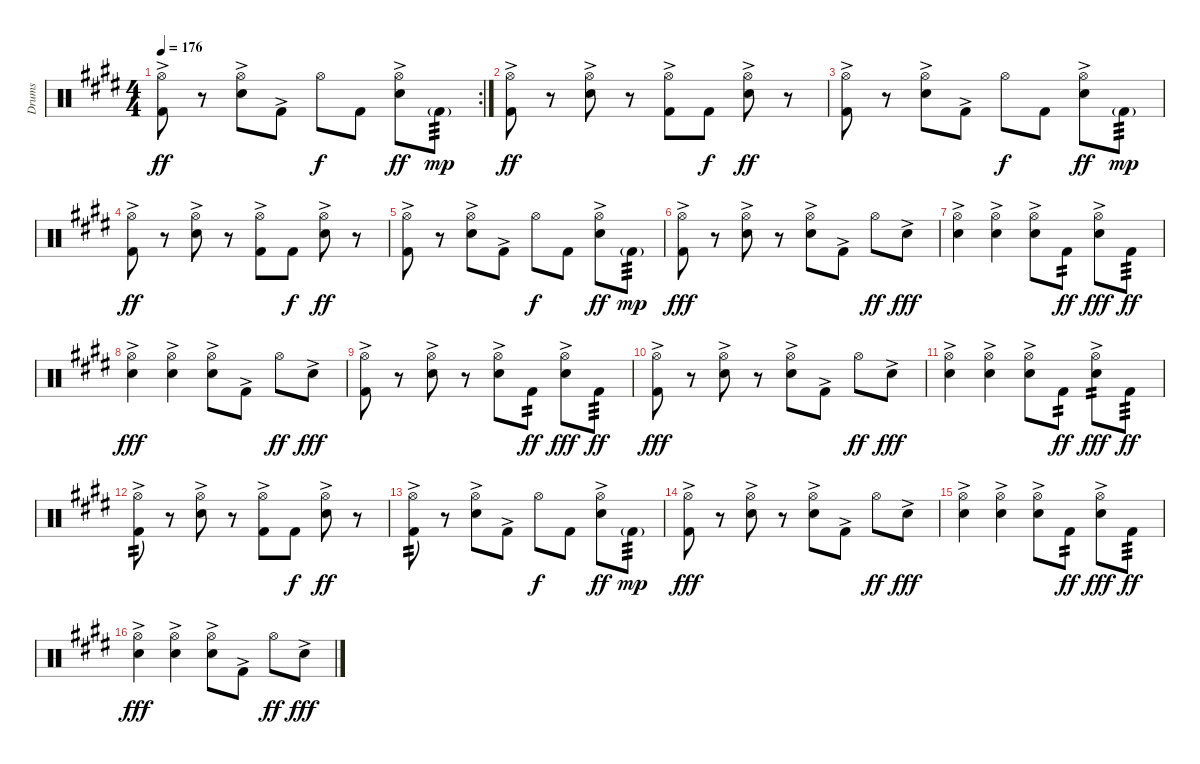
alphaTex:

\track ("Drums" "Drums") {instrument percussion}
\staff {score}
\articulation defaults
\rc 2
\ts (4 4)
\tempo 176
\clef neutral
\ks e
("Hi-Hat (open)" "Kick (hit) 2"{ac}).8{dy ff} r.8 ("Hi-Hat (open)" "Snare (hit) 2"{ac}).8 "Kick (hit) 2"{ac}.8 "Hi-Hat (open)".8{dy f} "Kick (hit) 2".8 ("Hi-Hat (open)" "Snare (hit) 2"{ac}).8{dy ff} "Kick (hit) 2"{g}.8{tp 3 dy mp} |
("Hi-Hat (open)" "Kick (hit) 2"{ac}).8{dy ff} r.8 ("Hi-Hat (open)" "Snare (hit) 2"{ac}).8 r.8 ("Hi-Hat (open)" "Kick (hit) 2"{ac}).8 "Kick (hit) 2".8{dy f} ("Hi-Hat (open)" "Snare (hit) 2"{ac}).8{dy ff} r.8 |
("Hi-Hat (open)" "Kick (hit) 2"{ac}).8 r.8 ("Hi-Hat (open)" "Snare (hit) 2"{ac}).8 "Kick (hit) 2"{ac}.8 "Hi-Hat (open)".8{dy f} "Kick (hit) 2".8 ("Hi-Hat (open)" "Snare (hit) 2"{ac}).8{dy ff} "Kick (hit) 2"{g}.8{tp 3 dy mp} |
("Hi-Hat (open)" "Kick (hit) 2"{ac}).8{dy ff} r.8 ("Hi-Hat (open)" "Snare (hit) 2"{ac}).8 r.8 ("Hi-Hat (open)" "Kick (hit) 2"{ac}).8 "Kick (hit) 2".8{dy f} ("Hi-Hat (open)" "Snare (hit) 2"{ac}).8{dy ff} r.8 |
("Hi-Hat (open)" "Kick (hit) 2"{ac}).8 r.8 ("Hi-Hat (open)" "Snare (hit) 2"{ac}).8 "Kick (hit) 2"{ac}.8 "Hi-Hat (open)".8{dy f} "Kick (hit) 2".8 ("Hi-Hat (open)" "Snare (hit) 2"{ac}).8{dy ff} "Kick (hit) 2"{g}.8{tp 3 dy mp} |
("Hi-Hat (open)" "Kick (hit) 2"{ac}).8{dy fff} r.8 ("Hi-Hat (open)" "Snare (hit) 2"{ac}).8 r.8 ("Hi-Hat (open)" "Snare (hit) 2"{ac}).8 "Kick (hit) 2"{ac}.8 "Hi-Hat (open)".8{dy ff} "Snare (hit) 2"{ac}.8{dy fff} |
("Hi-Hat (open)" "Snare (hit) 2"{ac}).4 ("Hi-Hat (open)" "Snare (hit) 2"{ac}).4 ("Hi-Hat (open)" "Snare (hit) 2"{ac}).8 "Kick (hit) 2".8{tp 2 dy ff} ("Hi-Hat (open)" "Snare (hit) 2"{ac}).8{dy fff} "Kick (hit) 2".8{tp 3 dy ff} |
("Hi-Hat (open)" "Snare (hit) 2"{ac}).4{dy fff} ("Hi-Hat (open)" "Snare (hit) 2"{ac}).4 ("Hi-Hat (open)" "Snare (hit) 2"{ac}).8 "Kick (hit) 2"{ac}.8 "Hi-Hat (open)".8{dy ff} "Snare (hit) 2"{ac}.8{dy fff} |
("Hi-Hat (open)" "Kick (hit) 2"{ac}).8 r.8 ("Hi-Hat (open)" "Snare (hit) 2"{ac}).8 r.8 ("Hi-Hat (open)" "Snare (hit) 2"{ac}).8 "Kick (hit) 2".8{tp 2 dy ff} ("Hi-Hat (open)" "Snare (hit) 2"{ac}).8{dy fff} "Kick (hit) 2".8{tp 3 dy ff} |
("Hi-Hat (open)" "Kick (hit) 2"{ac}).8{dy fff} r.8 ("Hi-Hat (open)" "Snare (hit) 2"{ac}).8 r.8 ("Hi-Hat (open)" "Snare (hit) 2"{ac}).8 "Kick (hit) 2"{ac}.8 "Hi-Hat (open)".8{dy ff} "Snare (hit) 2"{ac}.8{dy fff} |
("Hi-Hat (open)" "Snare (hit) 2"{ac}).4 ("Hi-Hat (open)" "Snare (hit) 2"{ac}).4 ("Hi-Hat (open)" "Snare (hit) 2"{ac}).8 "Kick (hit) 2".8{tp 2 dy ff} ("Hi-Hat (open)" "Snare (hit) 2"{ac}).8{tp 2 dy fff} "Kick (hit) 2".8{tp 3 dy ff} |
("Hi-Hat (open)" "Kick (hit) 2"{ac}).8{tp 2} r.8 ("Hi-Hat (open)" "Snare (hit) 2"{ac}).8 r.8 ("Hi-Hat (open)" "Kick (hit) 2"{ac}).8 "Kick (hit) 2".8{dy f} ("Hi-Hat (open)" "Snare (hit) 2"{ac}).8{dy ff} r.8 |
("Hi-Hat (open)" "Kick (hit) 2"{ac}).8{tp 2} r.8 ("Hi-Hat (open)" "Snare (hit) 2"{ac}).8 "Kick (hit) 2"{ac}.8 "Hi-Hat (open)".8{dy f} "Kick (hit) 2".8 ("Hi-Hat (open)" "Snare (hit) 2"{ac}).8{dy ff} "Kick (hit) 2"{g}.8{tp 3 dy mp} |
("Hi-Hat (open)" "Kick (hit) 2"{ac}).8{dy fff} r.8 ("Hi-Hat (open)" "Snare (hit) 2"{ac}).8 r.8 ("Hi-Hat (open)" "Snare (hit) 2"{ac}).8 "Kick (hit) 2"{ac}.8 "Hi-Hat (open)".8{dy ff} "Snare (hit) 2"{ac}.8{dy fff} |
("Hi-Hat (open)" "Snare (hit) 2"{ac}).4 ("Hi-Hat (open)" "Snare (hit) 2"{ac}).4 ("Hi-Hat (open)" "Snare (hit) 2"{ac}).8 "Kick (hit) 2".8{tp 2 dy ff} ("Hi-Hat (open)" "Snare (hit) 2"{ac}).8{dy fff} "Kick (hit) 2".8{tp 3 dy ff} |
("Hi-Hat (open)" "Snare (hit) 2"{ac}).4{dy fff} ("Hi-Hat (open)" "Snare (hit) 2"{ac}).4 ("Hi-Hat (open)" "Snare (hit) 2"{ac}).8 "Kick (hit) 2"{ac}.8 "Hi-Hat (open)".8{dy ff} "Snare (hit) 2"{ac}.8{dy fff}
